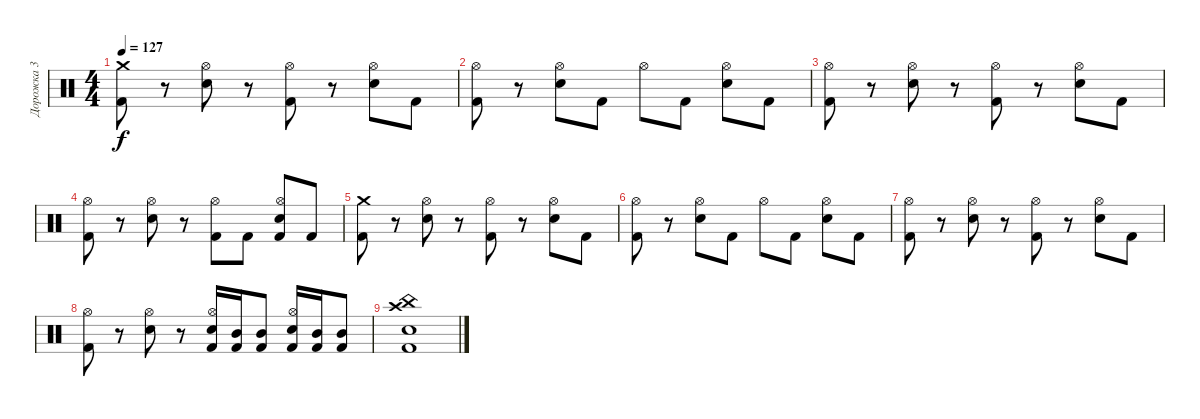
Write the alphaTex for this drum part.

\track ("Дорожка 3" "Дорожка 3") {instrument percussion}
\staff {score}
\articulation defaults
\ts (4 4)
\tempo 127
\clef neutral
\ks c
("Crash medium (hit)" "Kick (hit) 2").8{dy f} r.8 ("Hi-Hat (open)" "Electric Snare (hit)").8 r.8 ("Hi-Hat (open)" "Kick (hit) 2").8 r.8 ("Hi-Hat (open)" "Electric Snare (hit)").8 "Kick (hit) 2".8 |
("Hi-Hat (open)" "Kick (hit) 2").8 r.8 ("Hi-Hat (open)" "Electric Snare (hit)").8 "Kick (hit) 2".8 "Hi-Hat (open)".8 "Kick (hit) 2".8 ("Hi-Hat (open)" "Electric Snare (hit)").8 "Kick (hit) 2".8 |
("Hi-Hat (open)" "Kick (hit) 2").8 r.8 ("Hi-Hat (open)" "Electric Snare (hit)").8 r.8 ("Hi-Hat (open)" "Kick (hit) 2").8 r.8 ("Hi-Hat (open)" "Electric Snare (hit)").8 "Kick (hit) 2".8 |
("Hi-Hat (open)" "Kick (hit) 2").8 r.8 ("Hi-Hat (open)" "Electric Snare (hit)").8 r.8 ("Hi-Hat (open)" "Kick (hit) 2").8 "Kick (hit) 2".8 ("Hi-Hat (open)" "Electric Snare (hit)" "Kick (hit) 2").8 "Kick (hit) 2".8 |
("Crash medium (hit)" "Kick (hit) 2").8 r.8 ("Hi-Hat (open)" "Electric Snare (hit)").8 r.8 ("Hi-Hat (open)" "Kick (hit) 2").8 r.8 ("Hi-Hat (open)" "Electric Snare (hit)").8 "Kick (hit) 2".8 |
("Hi-Hat (open)" "Kick (hit) 2").8 r.8 ("Hi-Hat (open)" "Electric Snare (hit)").8 "Kick (hit) 2".8 "Hi-Hat (open)".8 "Kick (hit) 2".8 ("Hi-Hat (open)" "Electric Snare (hit)").8 "Kick (hit) 2".8 |
("Hi-Hat (open)" "Kick (hit) 2").8 r.8 ("Hi-Hat (open)" "Electric Snare (hit)").8 r.8 ("Hi-Hat (open)" "Kick (hit) 2").8 r.8 ("Hi-Hat (open)" "Electric Snare (hit)").8 "Kick (hit) 2".8 |
("Hi-Hat (open)" "Kick (hit) 2").8 r.8 ("Hi-Hat (open)" "Electric Snare (hit)").8 r.8 ("Hi-Hat (open)" "Electric Snare (hit)" "Kick (hit) 2").16 ("Mid Tom (hit)" "Kick (hit) 2").16 ("Mid Tom (hit)" "Kick (hit) 2").8 ("Hi-Hat (open)" "Electric Snare (hit)" "Kick (hit) 2").16 ("Mid Tom (hit)" "Kick (hit) 2").16 ("Mid Tom (hit)" "Kick (hit) 2").8 |
("Kick (hit) 2" "Crash high (hit)" "China (hit)" "Electric Snare (hit)").1
